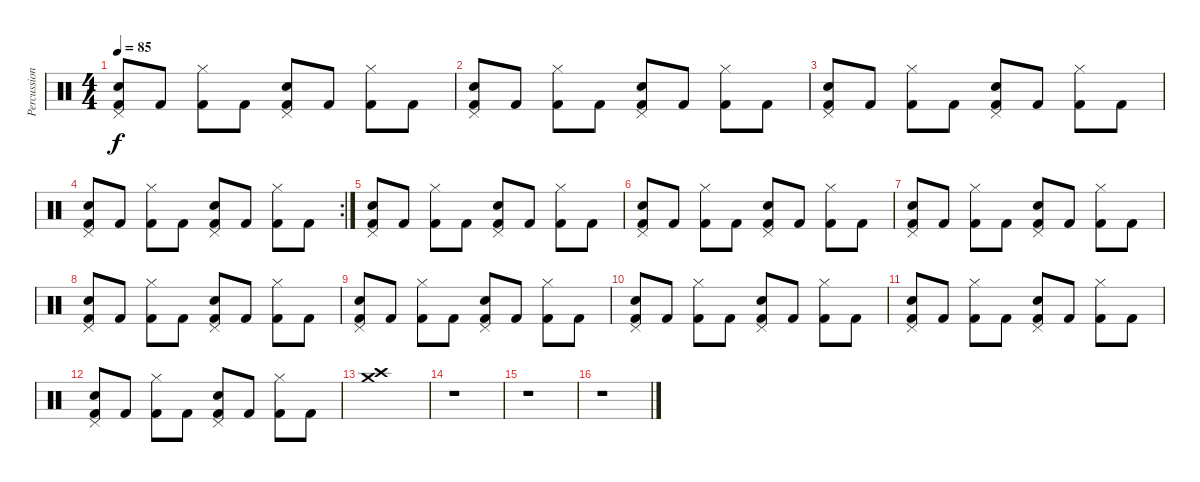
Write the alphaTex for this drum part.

\track ("Percussions" "Percussion") {instrument percussion}
\staff {score}
\articulation defaults
\ts (4 4)
\tempo 85
\clef neutral
\ks c
("Snare (hit) 2" "Pedal Hi-Hat (hit)" "Kick (hit) 2").8{dy f} "Kick (hit) 2".8 ("Hi-Hat (closed)" "Kick (hit) 2").8 "Kick (hit) 2".8 ("Pedal Hi-Hat (hit)" "Snare (hit) 2" "Kick (hit) 2").8 "Kick (hit) 2".8 ("Hi-Hat (closed)" "Kick (hit) 2").8 "Kick (hit) 2".8 |
("Snare (hit) 2" "Pedal Hi-Hat (hit)" "Kick (hit) 2").8 "Kick (hit) 2".8 ("Hi-Hat (closed)" "Kick (hit) 2").8 "Kick (hit) 2".8 ("Pedal Hi-Hat (hit)" "Snare (hit) 2" "Kick (hit) 2").8 "Kick (hit) 2".8 ("Hi-Hat (closed)" "Kick (hit) 2").8 "Kick (hit) 2".8 |
("Snare (hit) 2" "Pedal Hi-Hat (hit)" "Kick (hit) 2").8 "Kick (hit) 2".8 ("Hi-Hat (closed)" "Kick (hit) 2").8 "Kick (hit) 2".8 ("Pedal Hi-Hat (hit)" "Snare (hit) 2" "Kick (hit) 2").8 "Kick (hit) 2".8 ("Hi-Hat (closed)" "Kick (hit) 2").8 "Kick (hit) 2".8 |
\rc 2
("Snare (hit) 2" "Pedal Hi-Hat (hit)" "Kick (hit) 2").8 "Kick (hit) 2".8 ("Hi-Hat (closed)" "Kick (hit) 2").8 "Kick (hit) 2".8 ("Pedal Hi-Hat (hit)" "Snare (hit) 2" "Kick (hit) 2").8 "Kick (hit) 2".8 ("Hi-Hat (closed)" "Kick (hit) 2").8 "Kick (hit) 2".8 |
("Snare (hit) 2" "Pedal Hi-Hat (hit)" "Kick (hit) 2").8 "Kick (hit) 2".8 ("Hi-Hat (closed)" "Kick (hit) 2").8 "Kick (hit) 2".8 ("Pedal Hi-Hat (hit)" "Snare (hit) 2" "Kick (hit) 2").8 "Kick (hit) 2".8 ("Hi-Hat (closed)" "Kick (hit) 2").8 "Kick (hit) 2".8 |
("Snare (hit) 2" "Pedal Hi-Hat (hit)" "Kick (hit) 2").8 "Kick (hit) 2".8 ("Hi-Hat (closed)" "Kick (hit) 2").8 "Kick (hit) 2".8 ("Pedal Hi-Hat (hit)" "Snare (hit) 2" "Kick (hit) 2").8 "Kick (hit) 2".8 ("Hi-Hat (closed)" "Kick (hit) 2").8 "Kick (hit) 2".8 |
("Snare (hit) 2" "Pedal Hi-Hat (hit)" "Kick (hit) 2").8 "Kick (hit) 2".8 ("Hi-Hat (closed)" "Kick (hit) 2").8 "Kick (hit) 2".8 ("Pedal Hi-Hat (hit)" "Snare (hit) 2" "Kick (hit) 2").8 "Kick (hit) 2".8 ("Hi-Hat (closed)" "Kick (hit) 2").8 "Kick (hit) 2".8 |
("Snare (hit) 2" "Pedal Hi-Hat (hit)" "Kick (hit) 2").8 "Kick (hit) 2".8 ("Hi-Hat (closed)" "Kick (hit) 2").8 "Kick (hit) 2".8 ("Pedal Hi-Hat (hit)" "Snare (hit) 2" "Kick (hit) 2").8 "Kick (hit) 2".8 ("Hi-Hat (closed)" "Kick (hit) 2").8 "Kick (hit) 2".8 |
("Snare (hit) 2" "Pedal Hi-Hat (hit)" "Kick (hit) 2").8 "Kick (hit) 2".8 ("Hi-Hat (closed)" "Kick (hit) 2").8 "Kick (hit) 2".8 ("Pedal Hi-Hat (hit)" "Snare (hit) 2" "Kick (hit) 2").8 "Kick (hit) 2".8 ("Hi-Hat (closed)" "Kick (hit) 2").8 "Kick (hit) 2".8 |
("Snare (hit) 2" "Pedal Hi-Hat (hit)" "Kick (hit) 2").8 "Kick (hit) 2".8 ("Hi-Hat (closed)" "Kick (hit) 2").8 "Kick (hit) 2".8 ("Pedal Hi-Hat (hit)" "Snare (hit) 2" "Kick (hit) 2").8 "Kick (hit) 2".8 ("Hi-Hat (closed)" "Kick (hit) 2").8 "Kick (hit) 2".8 |
("Snare (hit) 2" "Pedal Hi-Hat (hit)" "Kick (hit) 2").8 "Kick (hit) 2".8 ("Hi-Hat (closed)" "Kick (hit) 2").8 "Kick (hit) 2".8 ("Pedal Hi-Hat (hit)" "Snare (hit) 2" "Kick (hit) 2").8 "Kick (hit) 2".8 ("Hi-Hat (closed)" "Kick (hit) 2").8 "Kick (hit) 2".8 |
("Snare (hit) 2" "Pedal Hi-Hat (hit)" "Kick (hit) 2").8 "Kick (hit) 2".8 ("Hi-Hat (closed)" "Kick (hit) 2").8 "Kick (hit) 2".8 ("Pedal Hi-Hat (hit)" "Snare (hit) 2" "Kick (hit) 2").8 "Kick (hit) 2".8 ("Hi-Hat (closed)" "Kick (hit) 2").8 "Kick (hit) 2".8 |
("Crash medium (hit)" "Crash high (hit)").1 |
r.1 |
r.1 |
r.1
